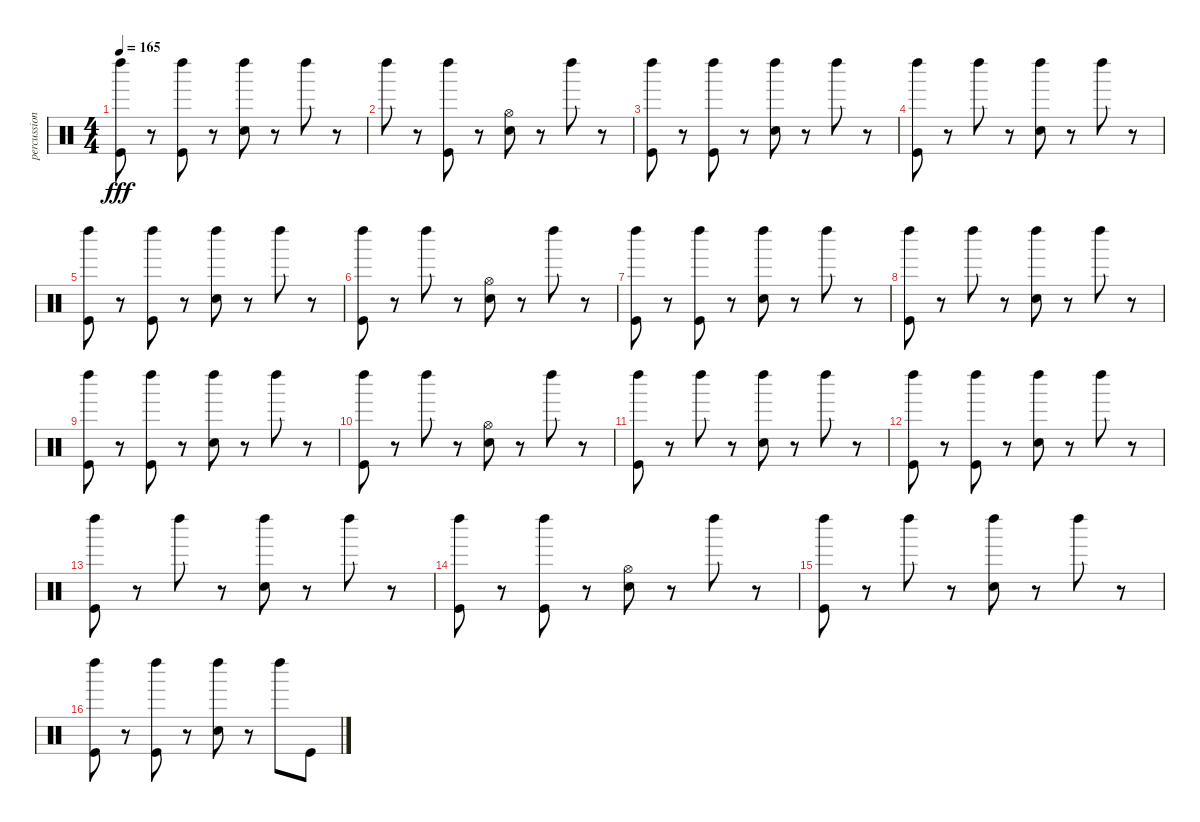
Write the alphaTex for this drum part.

\track ("percussion (Paice)" "percussion") {instrument percussion}
\staff {score}
\articulation defaults
\ts (4 4)
\tempo 165
\clef neutral
\ks c
("Left Maraca (hit)" "Kick (hit)").8{dy fff} r.8 ("Kick (hit)" "Left Maraca (hit)").8 r.8 ("Left Maraca (hit)" "Snare (hit) 2").8 r.8 "Left Maraca (hit)".8 r.8 |
"Left Maraca (hit)".8 r.8 ("Left Maraca (hit)" "Kick (hit)").8 r.8 ("Snare (hit) 2" "Hi-Hat (open)").8 r.8 "Left Maraca (hit)".8 r.8 |
("Left Maraca (hit)" "Kick (hit)").8 r.8 ("Kick (hit)" "Left Maraca (hit)").8 r.8 ("Left Maraca (hit)" "Snare (hit) 2").8 r.8 "Left Maraca (hit)".8 r.8 |
("Kick (hit)" "Left Maraca (hit)").8 r.8 "Left Maraca (hit)".8 r.8 ("Left Maraca (hit)" "Snare (hit) 2").8 r.8 "Left Maraca (hit)".8 r.8 |
("Left Maraca (hit)" "Kick (hit)").8 r.8 ("Kick (hit)" "Left Maraca (hit)").8 r.8 ("Left Maraca (hit)" "Snare (hit) 2").8 r.8 "Left Maraca (hit)".8 r.8 |
("Kick (hit)" "Left Maraca (hit)").8 r.8 "Left Maraca (hit)".8 r.8 ("Snare (hit) 2" "Hi-Hat (open)").8 r.8 "Left Maraca (hit)".8 r.8 |
("Left Maraca (hit)" "Kick (hit)").8 r.8 ("Kick (hit)" "Left Maraca (hit)").8 r.8 ("Left Maraca (hit)" "Snare (hit) 2").8 r.8 "Left Maraca (hit)".8 r.8 |
("Kick (hit)" "Left Maraca (hit)").8 r.8 "Left Maraca (hit)".8 r.8 ("Left Maraca (hit)" "Snare (hit) 2").8 r.8 "Left Maraca (hit)".8 r.8 |
("Left Maraca (hit)" "Kick (hit)").8 r.8 ("Kick (hit)" "Left Maraca (hit)").8 r.8 ("Left Maraca (hit)" "Snare (hit) 2").8 r.8 "Left Maraca (hit)".8 r.8 |
("Kick (hit)" "Left Maraca (hit)").8 r.8 "Left Maraca (hit)".8 r.8 ("Snare (hit) 2" "Hi-Hat (open)").8 r.8 "Left Maraca (hit)".8 r.8 |
("Left Maraca (hit)" "Kick (hit)").8 r.8 "Left Maraca (hit)".8 r.8 ("Left Maraca (hit)" "Snare (hit) 2").8 r.8 "Left Maraca (hit)".8 r.8 |
("Kick (hit)" "Left Maraca (hit)").8 r.8 ("Left Maraca (hit)" "Kick (hit)").8 r.8 ("Left Maraca (hit)" "Snare (hit) 2").8 r.8 "Left Maraca (hit)".8 r.8 |
("Left Maraca (hit)" "Kick (hit)").8 r.8 "Left Maraca (hit)".8 r.8 ("Left Maraca (hit)" "Snare (hit) 2").8 r.8 "Left Maraca (hit)".8 r.8 |
("Kick (hit)" "Left Maraca (hit)").8 r.8 ("Left Maraca (hit)" "Kick (hit)").8 r.8 ("Snare (hit) 2" "Hi-Hat (open)").8 r.8 "Left Maraca (hit)".8 r.8 |
("Left Maraca (hit)" "Kick (hit)").8 r.8 "Left Maraca (hit)".8 r.8 ("Left Maraca (hit)" "Snare (hit) 2").8 r.8 "Left Maraca (hit)".8 r.8 |
("Kick (hit)" "Left Maraca (hit)").8 r.8 ("Left Maraca (hit)" "Kick (hit)").8 r.8 ("Left Maraca (hit)" "Snare (hit) 2").8 r.8 "Left Maraca (hit)".8 "Kick (hit)".8
